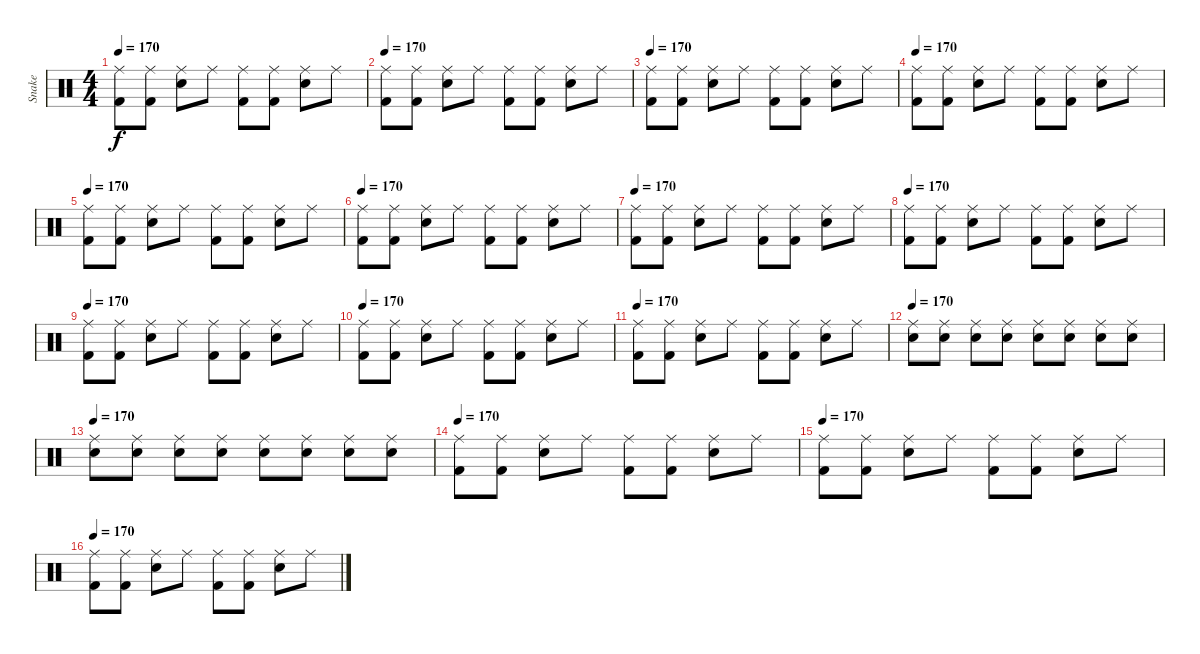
\track ("Snake" "Snake") {instrument percussion}
\staff {score}
\articulation defaults
\ts (4 4)
\tempo 170
\clef neutral
\ks c
("Ride (middle)" "Kick (hit) 2").8{dy f} ("Ride (middle)" "Kick (hit) 2").8 ("Ride (middle)" "Snare (hit) 2").8 "Ride (middle)".8 ("Ride (middle)" "Kick (hit) 2").8 ("Ride (middle)" "Kick (hit) 2").8 ("Ride (middle)" "Snare (hit) 2").8 "Ride (middle)".8 |
\tempo 170
("Ride (middle)" "Kick (hit) 2").8 ("Ride (middle)" "Kick (hit) 2").8 ("Ride (middle)" "Snare (hit) 2").8 "Ride (middle)".8 ("Ride (middle)" "Kick (hit) 2").8 ("Ride (middle)" "Kick (hit) 2").8 ("Ride (middle)" "Snare (hit) 2").8 "Ride (middle)".8 |
\tempo 170
("Ride (middle)" "Kick (hit) 2").8 ("Ride (middle)" "Kick (hit) 2").8 ("Ride (middle)" "Snare (hit) 2").8 "Ride (middle)".8 ("Ride (middle)" "Kick (hit) 2").8 ("Ride (middle)" "Kick (hit) 2").8 ("Ride (middle)" "Snare (hit) 2").8 "Ride (middle)".8 |
\tempo 170
("Ride (middle)" "Kick (hit) 2").8 ("Ride (middle)" "Kick (hit) 2").8 ("Ride (middle)" "Snare (hit) 2").8 "Ride (middle)".8 ("Ride (middle)" "Kick (hit) 2").8 ("Ride (middle)" "Kick (hit) 2").8 ("Ride (middle)" "Snare (hit) 2").8 "Ride (middle)".8 |
\tempo 170
("Ride (middle)" "Kick (hit) 2").8 ("Ride (middle)" "Kick (hit) 2").8 ("Ride (middle)" "Snare (hit) 2").8 "Ride (middle)".8 ("Ride (middle)" "Kick (hit) 2").8 ("Ride (middle)" "Kick (hit) 2").8 ("Ride (middle)" "Snare (hit) 2").8 "Ride (middle)".8 |
\tempo 170
("Ride (middle)" "Kick (hit) 2").8 ("Ride (middle)" "Kick (hit) 2").8 ("Ride (middle)" "Snare (hit) 2").8 "Ride (middle)".8 ("Ride (middle)" "Kick (hit) 2").8 ("Ride (middle)" "Kick (hit) 2").8 ("Ride (middle)" "Snare (hit) 2").8 "Ride (middle)".8 |
\tempo 170
("Ride (middle)" "Kick (hit) 2").8 ("Ride (middle)" "Kick (hit) 2").8 ("Ride (middle)" "Snare (hit) 2").8 "Ride (middle)".8 ("Ride (middle)" "Kick (hit) 2").8 ("Ride (middle)" "Kick (hit) 2").8 ("Ride (middle)" "Snare (hit) 2").8 "Ride (middle)".8 |
\tempo 170
("Ride (middle)" "Kick (hit) 2").8 ("Ride (middle)" "Kick (hit) 2").8 ("Ride (middle)" "Snare (hit) 2").8 "Ride (middle)".8 ("Ride (middle)" "Kick (hit) 2").8 ("Ride (middle)" "Kick (hit) 2").8 ("Ride (middle)" "Snare (hit) 2").8 "Ride (middle)".8 |
\tempo 170
("Ride (middle)" "Kick (hit) 2").8 ("Ride (middle)" "Kick (hit) 2").8 ("Ride (middle)" "Snare (hit) 2").8 "Ride (middle)".8 ("Ride (middle)" "Kick (hit) 2").8 ("Ride (middle)" "Kick (hit) 2").8 ("Ride (middle)" "Snare (hit) 2").8 "Ride (middle)".8 |
\tempo 170
("Ride (middle)" "Kick (hit) 2").8 ("Ride (middle)" "Kick (hit) 2").8 ("Ride (middle)" "Snare (hit) 2").8 "Ride (middle)".8 ("Ride (middle)" "Kick (hit) 2").8 ("Ride (middle)" "Kick (hit) 2").8 ("Ride (middle)" "Snare (hit) 2").8 "Ride (middle)".8 |
\tempo 170
("Ride (middle)" "Kick (hit) 2").8 ("Ride (middle)" "Kick (hit) 2").8 ("Ride (middle)" "Snare (hit) 2").8 "Ride (middle)".8 ("Ride (middle)" "Kick (hit) 2").8 ("Ride (middle)" "Kick (hit) 2").8 ("Ride (middle)" "Snare (hit) 2").8 "Ride (middle)".8 |
\tempo 170
("Ride (middle)" "Snare (hit) 2").8 ("Ride (middle)" "Snare (hit) 2").8 ("Ride (middle)" "Snare (hit) 2").8 ("Ride (middle)" "Snare (hit) 2").8 ("Ride (middle)" "Snare (hit) 2").8 ("Ride (middle)" "Snare (hit) 2").8 ("Ride (middle)" "Snare (hit) 2").8 ("Ride (middle)" "Snare (hit) 2").8 |
\tempo 170
("Ride (middle)" "Snare (hit) 2").8 ("Ride (middle)" "Snare (hit) 2").8 ("Ride (middle)" "Snare (hit) 2").8 ("Ride (middle)" "Snare (hit) 2").8 ("Ride (middle)" "Snare (hit) 2").8 ("Ride (middle)" "Snare (hit) 2").8 ("Ride (middle)" "Snare (hit) 2").8 ("Ride (middle)" "Snare (hit) 2").8 |
\tempo 170
("Ride (middle)" "Kick (hit) 2").8 ("Ride (middle)" "Kick (hit) 2").8 ("Ride (middle)" "Snare (hit) 2").8 "Ride (middle)".8 ("Ride (middle)" "Kick (hit) 2").8 ("Ride (middle)" "Kick (hit) 2").8 ("Ride (middle)" "Snare (hit) 2").8 "Ride (middle)".8 |
\tempo 170
("Ride (middle)" "Kick (hit) 2").8 ("Ride (middle)" "Kick (hit) 2").8 ("Ride (middle)" "Snare (hit) 2").8 "Ride (middle)".8 ("Ride (middle)" "Kick (hit) 2").8 ("Ride (middle)" "Kick (hit) 2").8 ("Ride (middle)" "Snare (hit) 2").8 "Ride (middle)".8 |
\tempo 170
("Ride (middle)" "Kick (hit) 2").8 ("Ride (middle)" "Kick (hit) 2").8 ("Ride (middle)" "Snare (hit) 2").8 "Ride (middle)".8 ("Ride (middle)" "Kick (hit) 2").8 ("Ride (middle)" "Kick (hit) 2").8 ("Ride (middle)" "Snare (hit) 2").8 "Ride (middle)".8
